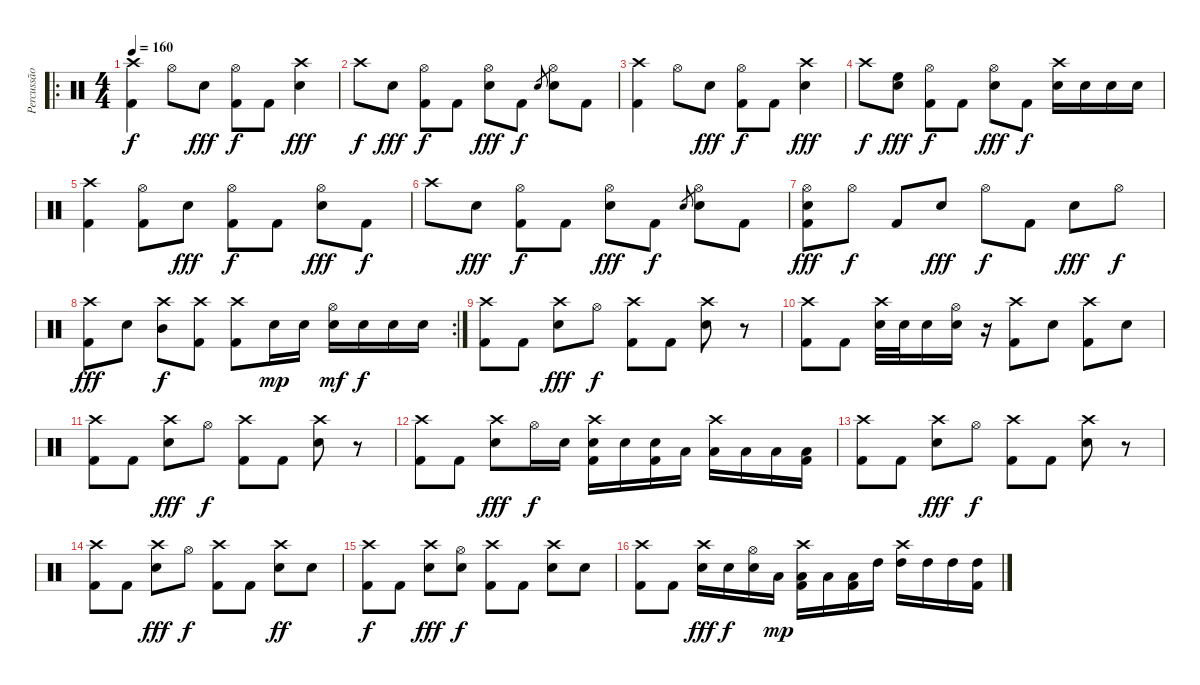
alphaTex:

\track ("Percussão" "Percussão") {instrument percussion}
\staff {score}
\articulation defaults
\ro
\ts (4 4)
\tempo 160
\clef neutral
\ks c
("Crash high (hit)" "Kick (hit) 2").4{dy f} "Hi-Hat (open)".8 "Electric Snare (hit)".8{dy fff} ("Hi-Hat (open)" "Kick (hit) 2").8{dy f} "Kick (hit) 2".8 ("Crash high (hit)" "Electric Snare (hit)").4{dy fff} |
"Crash high (hit)".8{dy f} "Electric Snare (hit)".8{dy fff} ("Hi-Hat (open)" "Kick (hit) 2").8{dy f} "Kick (hit) 2".8 ("Hi-Hat (open)" "Electric Snare (hit)").8{dy fff} "Kick (hit) 2".8{dy f} "Electric Snare (hit)".8{gr} ("Hi-Hat (open)" "Electric Snare (hit)").8 "Kick (hit) 2".8 |
("Crash high (hit)" "Kick (hit) 2").4 "Hi-Hat (open)".8 "Electric Snare (hit)".8{dy fff} ("Hi-Hat (open)" "Kick (hit) 2").8{dy f} "Kick (hit) 2".8 ("Crash high (hit)" "Electric Snare (hit)").4{dy fff} |
"Crash high (hit)".8{dy f} ("High Floor Tom (hit)" "Electric Snare (hit)").8{dy fff} ("Hi-Hat (open)" "Kick (hit) 2").8{dy f} "Kick (hit) 2".8 ("Hi-Hat (open)" "Electric Snare (hit)").8{dy fff} "Kick (hit) 2".8{dy f} ("Crash high (hit)" "Electric Snare (hit)").16 "Electric Snare (hit)".16 "Electric Snare (hit)".16 "Electric Snare (hit)".16 |
("Crash high (hit)" "Kick (hit) 2").4 ("Hi-Hat (open)" "Kick (hit) 2").8 "Electric Snare (hit)".8{dy fff} ("Hi-Hat (open)" "Kick (hit) 2").8{dy f} "Kick (hit) 2".8 ("Hi-Hat (open)" "Electric Snare (hit)").8{dy fff} "Kick (hit) 2".8{dy f} |
"Crash high (hit)".8 "Electric Snare (hit)".8{dy fff} ("Hi-Hat (open)" "Kick (hit) 2").8{dy f} "Kick (hit) 2".8 ("Hi-Hat (open)" "Electric Snare (hit)").8{dy fff} "Kick (hit) 2".8{dy f} "Electric Snare (hit)".8{gr} ("Hi-Hat (open)" "Electric Snare (hit)").8 "Kick (hit) 2".8 |
("Hi-Hat (open)" "Electric Snare (hit)" "Kick (hit) 2").8{dy fff} "Hi-Hat (open)".8{dy f} "Kick (hit) 2".8 "Electric Snare (hit)".8{dy fff} "Hi-Hat (open)".8{dy f} "Kick (hit) 2".8 "Electric Snare (hit)".8{dy fff} "Hi-Hat (open)".8{dy f} |
\rc 2
("Crash high (hit)" "Kick (hit) 2").8{dy fff} "Electric Snare (hit)".8 ("Crash high (hit)" "Mid Tom (hit)").8{dy f} ("Crash high (hit)" "Kick (hit) 2").8 ("Crash high (hit)" "Kick (hit) 2").8 "Electric Snare (hit)".16{dy mp} "Electric Snare (hit)".16 ("Hi-Hat (open)" "Electric Snare (hit)").16{dy mf} "Electric Snare (hit)".16{dy f} "Electric Snare (hit)".16 "Electric Snare (hit)".16 |
("Crash high (hit)" "Kick (hit) 2").8 "Kick (hit) 2".8 ("Crash high (hit)" "Electric Snare (hit)").8{dy fff} "Hi-Hat (open)".8{dy f} ("Crash high (hit)" "Kick (hit) 2").8 "Kick (hit) 2".8 ("Crash high (hit)" "Electric Snare (hit)").8 r.8 |
("Crash high (hit)" "Kick (hit) 2").8 "Kick (hit) 2".8 ("Crash high (hit)" "Electric Snare (hit)").32 "Electric Snare (hit)".32 "Electric Snare (hit)".16 ("Hi-Hat (open)" "Electric Snare (hit)").16 r.16 ("Crash high (hit)" "Kick (hit) 2").8 "Electric Snare (hit)".8 ("Crash high (hit)" "Kick (hit) 2").8 "Electric Snare (hit)".8 |
("Crash high (hit)" "Kick (hit) 2").8 "Kick (hit) 2".8 ("Crash high (hit)" "Electric Snare (hit)").8{dy fff} "Hi-Hat (open)".8{dy f} ("Crash high (hit)" "Kick (hit) 2").8 "Kick (hit) 2".8 ("Crash high (hit)" "Electric Snare (hit)").8 r.8 |
("Crash high (hit)" "Kick (hit) 2").8 "Kick (hit) 2".8 ("Crash high (hit)" "Electric Snare (hit)").8{dy fff} "Hi-Hat (open)".16{dy f} "Electric Snare (hit)".16 ("Crash high (hit)" "Electric Snare (hit)" "Kick (hit) 2").16 "Electric Snare (hit)".16 ("Electric Snare (hit)" "Kick (hit) 2").16 "Low Tom (hit)".16 ("Crash high (hit)" "Low Tom (hit)").16 "Low Tom (hit)".16 "Low Tom (hit)".16 ("Low Tom (hit)" "Kick (hit) 2").16 |
("Crash high (hit)" "Kick (hit) 2").8 "Kick (hit) 2".8 ("Crash high (hit)" "Electric Snare (hit)").8{dy fff} "Hi-Hat (open)".8{dy f} ("Crash high (hit)" "Kick (hit) 2").8 "Kick (hit) 2".8 ("Crash high (hit)" "Electric Snare (hit)").8 r.8 |
("Crash high (hit)" "Kick (hit) 2").8 "Kick (hit) 2".8 ("Crash high (hit)" "Electric Snare (hit)").8{dy fff} "Hi-Hat (open)".8{dy f} ("Crash high (hit)" "Kick (hit) 2").8 "Kick (hit) 2".8 ("Crash high (hit)" "Electric Snare (hit)").8{dy ff} "Electric Snare (hit)".8 |
("Crash high (hit)" "Kick (hit) 2").8{dy f} "Kick (hit) 2".8 ("Crash high (hit)" "Electric Snare (hit)").8{dy fff} ("Hi-Hat (open)" "Electric Snare (hit)").8{dy f} ("Crash high (hit)" "Kick (hit) 2").8 "Kick (hit) 2".8 ("Crash high (hit)" "Electric Snare (hit)").8 "Electric Snare (hit)".8 |
("Crash high (hit)" "Kick (hit) 2").8 "Kick (hit) 2".8 ("Crash high (hit)" "Electric Snare (hit)").16{dy fff} "Electric Snare (hit)".16{dy f} ("Hi-Hat (open)" "Electric Snare (hit)").16 "Low Floor Tom (hit)".16{dy mp} ("Crash high (hit)" "Low Floor Tom (hit)" "Kick (hit) 2").16 "Low Floor Tom (hit)".16 ("Low Floor Tom (hit)" "Kick (hit) 2").16 "High Tom (hit)".16 ("Crash high (hit)" "High Tom (hit)").16 "High Tom (hit)".16 "High Tom (hit)".16 ("High Tom (hit)" "Kick (hit) 2").16
